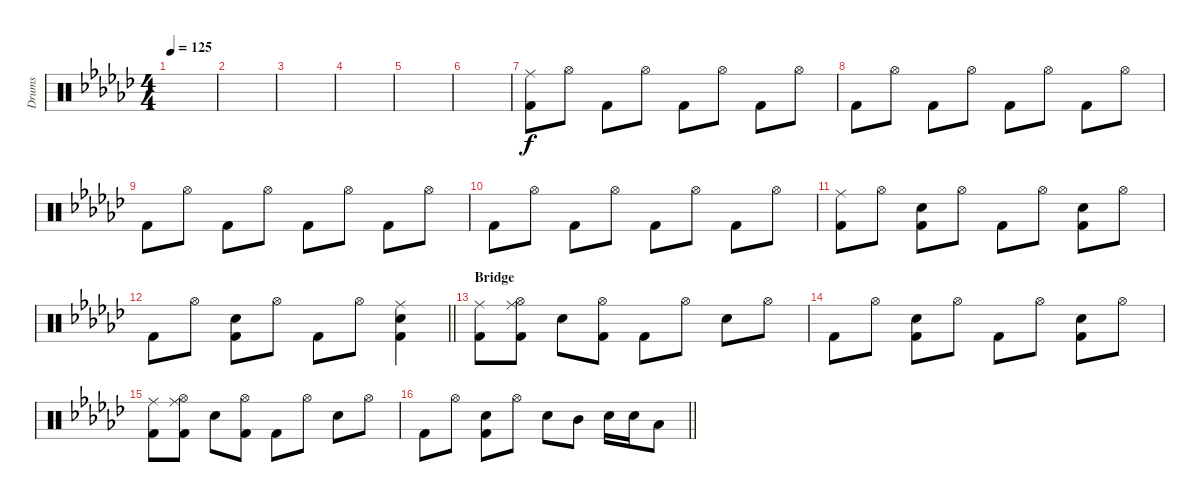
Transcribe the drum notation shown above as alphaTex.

\track ("Drums" "Drums") {instrument percussion}
\staff {score}
\articulation defaults
\ts (4 4)
\tempo 125
\clef neutral
\ks gb
|
|
|
|
|
|
("Ride (middle)" "Kick (hit) 2").8 "Hi-Hat (open)".8 "Kick (hit) 2".8 "Hi-Hat (open)".8 "Kick (hit) 2".8 "Hi-Hat (open)".8 "Kick (hit) 2".8 "Hi-Hat (open)".8 |
"Kick (hit) 2".8 "Hi-Hat (open)".8 "Kick (hit) 2".8 "Hi-Hat (open)".8 "Kick (hit) 2".8 "Hi-Hat (open)".8 "Kick (hit) 2".8 "Hi-Hat (open)".8 |
"Kick (hit) 2".8 "Hi-Hat (open)".8 "Kick (hit) 2".8 "Hi-Hat (open)".8 "Kick (hit) 2".8 "Hi-Hat (open)".8 "Kick (hit) 2".8 "Hi-Hat (open)".8 |
"Kick (hit) 2".8 "Hi-Hat (open)".8 "Kick (hit) 2".8 "Hi-Hat (open)".8 "Kick (hit) 2".8 "Hi-Hat (open)".8 "Kick (hit) 2".8 "Hi-Hat (open)".8 |
("Ride (middle)" "Kick (hit) 2").8 "Hi-Hat (open)".8 ("Snare (hit) 2" "Kick (hit) 2").8 "Hi-Hat (open)".8 "Kick (hit) 2".8 "Hi-Hat (open)".8 ("Snare (hit) 2" "Kick (hit) 2").8 "Hi-Hat (open)".8 |
\barLineRight lightlight "Kick (hit) 2".8 "Hi-Hat (open)".8
("Snare (hit) 2" "Kick (hit) 2").8 "Hi-Hat (open)".8 "Kick (hit) 2".8 "Hi-Hat (open)".8 ("Ride (middle)" "Snare (hit) 2" "Kick (hit) 2").4 |
\section ("" "Bridge")
("Ride (middle)" "Kick (hit) 2").8 ("Ride (middle)" "Hi-Hat (open)" "Kick (hit) 2").8 "Snare (hit) 2".8 ("Hi-Hat (open)" "Kick (hit) 2").8 "Kick (hit) 2".8 "Hi-Hat (open)".8 "Snare (hit) 2".8 "Hi-Hat (open)".8 |
"Kick (hit) 2".8 "Hi-Hat (open)".8 ("Snare (hit) 2" "Kick (hit) 2").8 "Hi-Hat (open)".8 "Kick (hit) 2".8 "Hi-Hat (open)".8 ("Snare (hit) 2" "Kick (hit) 2").8 "Hi-Hat (open)".8 |
("Ride (middle)" "Kick (hit) 2").8 ("Ride (middle)" "Hi-Hat (open)" "Kick (hit) 2").8 "Snare (hit) 2".8 ("Hi-Hat (open)" "Kick (hit) 2").8 "Kick (hit) 2".8 "Hi-Hat (open)".8 "Snare (hit) 2".8 "Hi-Hat (open)".8 |
\barLineRight lightlight "Kick (hit) 2".8 "Hi-Hat (open)".8
("Snare (hit) 2" "Kick (hit) 2").8 "Hi-Hat (open)".8 "Snare (hit) 2".8 "Mid Tom (hit)".8 "Snare (hit) 2".16 "Snare (hit) 2".16 "Low Tom (hit)".8
